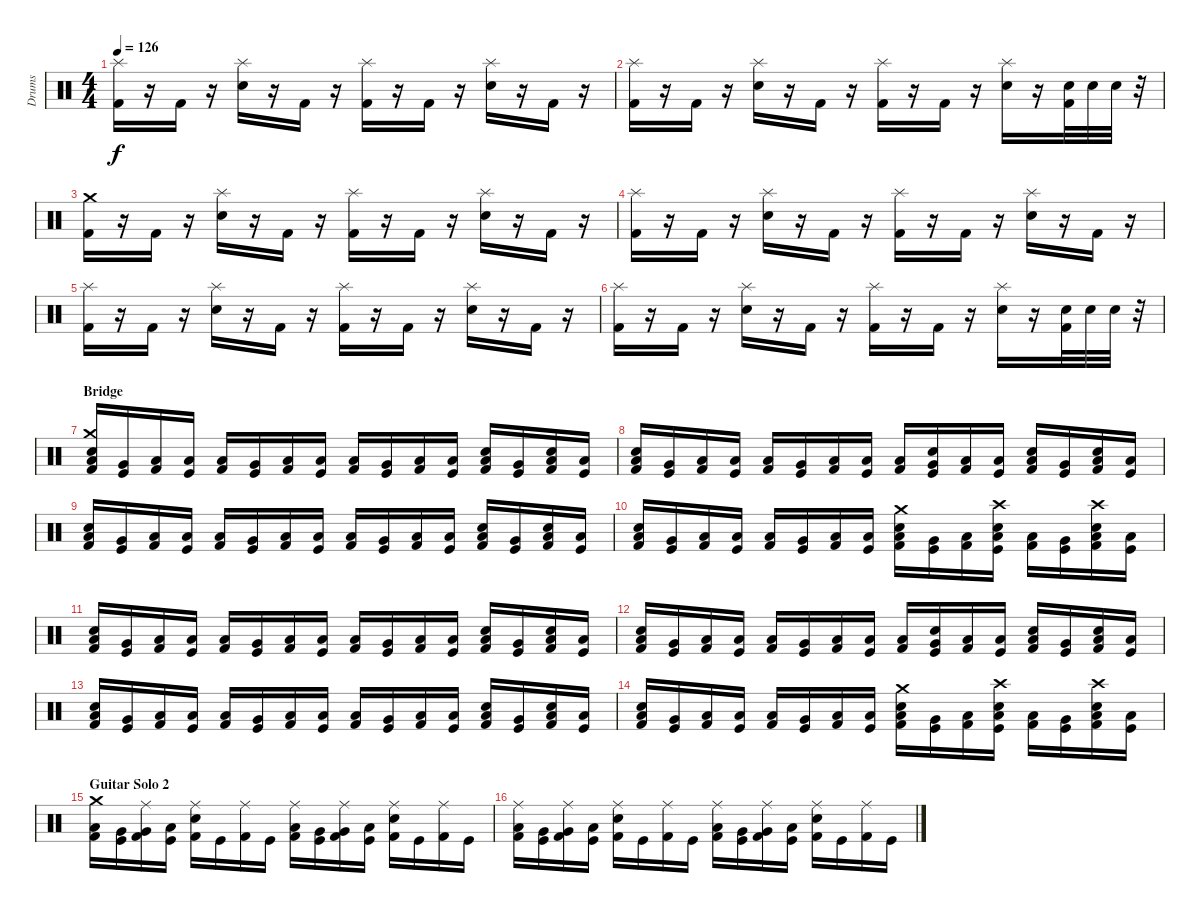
\track ("Drums" "Drums") {instrument percussion}
\staff {score}
\articulation defaults
\ts (4 4)
\tempo 126
\clef neutral
\ks c
("Splash (hit)" "Kick (hit) 2").16{dy f} r.16 "Kick (hit) 2".16 r.16 ("Splash (hit)" "Snare (hit) 2").16 r.16 "Kick (hit) 2".16 r.16 ("Splash (hit)" "Kick (hit) 2").16 r.16 "Kick (hit) 2".16 r.16 ("Splash (hit)" "Snare (hit) 2").16 r.16 "Kick (hit) 2".16 r.16 |
("Splash (hit)" "Kick (hit) 2").16 r.16 "Kick (hit) 2".16 r.16 ("Splash (hit)" "Snare (hit) 2").16 r.16 "Kick (hit) 2".16 r.16 ("Splash (hit)" "Kick (hit) 2").16 r.16 "Kick (hit) 2".16 r.16 ("Splash (hit)" "Snare (hit) 2").16 r.16 ("Snare (hit) 2" "Kick (hit) 2").32 "Snare (hit) 2".32 "Snare (hit) 2".32 r.32 |
("Crash medium (hit)" "Kick (hit) 2").16 r.16 "Kick (hit) 2".16 r.16 ("Splash (hit)" "Snare (hit) 2").16 r.16 "Kick (hit) 2".16 r.16 ("Splash (hit)" "Kick (hit) 2").16 r.16 "Kick (hit) 2".16 r.16 ("Splash (hit)" "Snare (hit) 2").16 r.16 "Kick (hit) 2".16 r.16 |
("Splash (hit)" "Kick (hit) 2").16 r.16 "Kick (hit) 2".16 r.16 ("Splash (hit)" "Snare (hit) 2").16 r.16 "Kick (hit) 2".16 r.16 ("Splash (hit)" "Kick (hit) 2").16 r.16 "Kick (hit) 2".16 r.16 ("Splash (hit)" "Snare (hit) 2").16 r.16 "Kick (hit) 2".16 r.16 |
("Splash (hit)" "Kick (hit) 2").16 r.16 "Kick (hit) 2".16 r.16 ("Splash (hit)" "Snare (hit) 2").16 r.16 "Kick (hit) 2".16 r.16 ("Splash (hit)" "Kick (hit) 2").16 r.16 "Kick (hit) 2".16 r.16 ("Splash (hit)" "Snare (hit) 2").16 r.16 "Kick (hit) 2".16 r.16 |
("Splash (hit)" "Kick (hit) 2").16 r.16 "Kick (hit) 2".16 r.16 ("Splash (hit)" "Snare (hit) 2").16 r.16 "Kick (hit) 2".16 r.16 ("Splash (hit)" "Kick (hit) 2").16 r.16 "Kick (hit) 2".16 r.16 ("Splash (hit)" "Snare (hit) 2").16 r.16 ("Snare (hit) 2" "Kick (hit) 2").32 "Snare (hit) 2".32 "Snare (hit) 2".32 r.32 |
\section ("" "Bridge")
("Crash medium (hit)" "Low Tom (hit)" "Snare (hit) 2" "Kick (hit) 2").16 ("Very Low Tom (hit)" "Kick (hit)").16 ("Low Floor Tom (hit)" "Kick (hit) 2").16 ("Low Floor Tom (hit)" "Kick (hit)").16 ("Low Tom (hit)" "Kick (hit) 2").16 ("Very Low Tom (hit)" "Kick (hit)").16 ("Low Floor Tom (hit)" "Kick (hit) 2").16 ("Low Floor Tom (hit)" "Kick (hit)").16 ("Low Tom (hit)" "Kick (hit) 2").16 ("Very Low Tom (hit)" "Kick (hit)").16 ("Low Floor Tom (hit)" "Kick (hit) 2").16 ("Low Floor Tom (hit)" "Kick (hit)").16 ("Low Tom (hit)" "Snare (hit) 2" "Kick (hit) 2").16 ("Very Low Tom (hit)" "Kick (hit)").16 ("Low Floor Tom (hit)" "Snare (hit) 2" "Kick (hit) 2").16 ("Low Floor Tom (hit)" "Kick (hit)").16 |
("Low Tom (hit)" "Snare (hit) 2" "Kick (hit) 2").16 ("Very Low Tom (hit)" "Kick (hit)").16 ("Low Floor Tom (hit)" "Kick (hit) 2").16 ("Low Floor Tom (hit)" "Kick (hit)").16 ("Low Tom (hit)" "Kick (hit) 2").16 ("Very Low Tom (hit)" "Kick (hit)").16 ("Low Floor Tom (hit)" "Kick (hit) 2").16 ("Low Floor Tom (hit)" "Kick (hit)").16 ("Low Tom (hit)" "Kick (hit) 2").16 ("Very Low Tom (hit)" "Snare (hit) 2" "Kick (hit)").16 ("Low Floor Tom (hit)" "Kick (hit) 2").16 ("Low Floor Tom (hit)" "Kick (hit)").16 ("Low Tom (hit)" "Snare (hit) 2" "Kick (hit) 2").16 ("Very Low Tom (hit)" "Kick (hit)").16 ("Low Floor Tom (hit)" "Snare (hit) 2" "Kick (hit) 2").16 ("Low Floor Tom (hit)" "Kick (hit)").16 |
("Low Tom (hit)" "Snare (hit) 2" "Kick (hit) 2").16 ("Very Low Tom (hit)" "Kick (hit)").16 ("Low Floor Tom (hit)" "Kick (hit) 2").16 ("Low Floor Tom (hit)" "Kick (hit)").16 ("Low Tom (hit)" "Kick (hit) 2").16 ("Very Low Tom (hit)" "Kick (hit)").16 ("Low Floor Tom (hit)" "Kick (hit) 2").16 ("Low Floor Tom (hit)" "Kick (hit)").16 ("Low Tom (hit)" "Kick (hit) 2").16 ("Very Low Tom (hit)" "Kick (hit)").16 ("Low Floor Tom (hit)" "Kick (hit) 2").16 ("Low Floor Tom (hit)" "Kick (hit)").16 ("Low Tom (hit)" "Snare (hit) 2" "Kick (hit) 2").16 ("Very Low Tom (hit)" "Kick (hit)").16 ("Low Floor Tom (hit)" "Snare (hit) 2" "Kick (hit) 2").16 ("Low Floor Tom (hit)" "Kick (hit)").16 |
("Low Tom (hit)" "Snare (hit) 2" "Kick (hit) 2").16 ("Very Low Tom (hit)" "Kick (hit)").16 ("Low Floor Tom (hit)" "Kick (hit) 2").16 ("Low Floor Tom (hit)" "Kick (hit)").16 ("Low Tom (hit)" "Kick (hit) 2").16 ("Very Low Tom (hit)" "Kick (hit)").16 ("Low Floor Tom (hit)" "Kick (hit) 2").16 ("Low Floor Tom (hit)" "Kick (hit)").16 ("Crash medium (hit)" "Low Tom (hit)" "Snare (hit) 2" "Kick (hit) 2").16 ("Very Low Tom (hit)" "Kick (hit)").16 ("Low Floor Tom (hit)" "Kick (hit) 2").16 ("Crash high (hit)" "Low Floor Tom (hit)" "Snare (hit) 2" "Kick (hit)").16 ("Low Tom (hit)" "Kick (hit) 2").16 ("Very Low Tom (hit)" "Kick (hit)").16 ("Crash high (hit)" "Low Floor Tom (hit)" "Snare (hit) 2" "Kick (hit) 2").16 ("Low Floor Tom (hit)" "Kick (hit)").16 |
("Low Tom (hit)" "Snare (hit) 2" "Kick (hit) 2").16 ("Very Low Tom (hit)" "Kick (hit)").16 ("Low Floor Tom (hit)" "Kick (hit) 2").16 ("Low Floor Tom (hit)" "Kick (hit)").16 ("Low Tom (hit)" "Kick (hit) 2").16 ("Very Low Tom (hit)" "Kick (hit)").16 ("Low Floor Tom (hit)" "Kick (hit) 2").16 ("Low Floor Tom (hit)" "Kick (hit)").16 ("Low Tom (hit)" "Kick (hit) 2").16 ("Very Low Tom (hit)" "Kick (hit)").16 ("Low Floor Tom (hit)" "Kick (hit) 2").16 ("Low Floor Tom (hit)" "Kick (hit)").16 ("Low Tom (hit)" "Snare (hit) 2" "Kick (hit) 2").16 ("Very Low Tom (hit)" "Kick (hit)").16 ("Low Floor Tom (hit)" "Snare (hit) 2" "Kick (hit) 2").16 ("Low Floor Tom (hit)" "Kick (hit)").16 |
("Low Tom (hit)" "Snare (hit) 2" "Kick (hit) 2").16 ("Very Low Tom (hit)" "Kick (hit)").16 ("Low Floor Tom (hit)" "Kick (hit) 2").16 ("Low Floor Tom (hit)" "Kick (hit)").16 ("Low Tom (hit)" "Kick (hit) 2").16 ("Very Low Tom (hit)" "Kick (hit)").16 ("Low Floor Tom (hit)" "Kick (hit) 2").16 ("Low Floor Tom (hit)" "Kick (hit)").16 ("Low Tom (hit)" "Kick (hit) 2").16 ("Very Low Tom (hit)" "Snare (hit) 2" "Kick (hit)").16 ("Low Floor Tom (hit)" "Kick (hit) 2").16 ("Low Floor Tom (hit)" "Kick (hit)").16 ("Low Tom (hit)" "Snare (hit) 2" "Kick (hit) 2").16 ("Very Low Tom (hit)" "Kick (hit)").16 ("Low Floor Tom (hit)" "Snare (hit) 2" "Kick (hit) 2").16 ("Low Floor Tom (hit)" "Kick (hit)").16 |
("Low Tom (hit)" "Snare (hit) 2" "Kick (hit) 2").16 ("Very Low Tom (hit)" "Kick (hit)").16 ("Low Floor Tom (hit)" "Kick (hit) 2").16 ("Low Floor Tom (hit)" "Kick (hit)").16 ("Low Tom (hit)" "Kick (hit) 2").16 ("Very Low Tom (hit)" "Kick (hit)").16 ("Low Floor Tom (hit)" "Kick (hit) 2").16 ("Low Floor Tom (hit)" "Kick (hit)").16 ("Low Tom (hit)" "Kick (hit) 2").16 ("Very Low Tom (hit)" "Kick (hit)").16 ("Low Floor Tom (hit)" "Kick (hit) 2").16 ("Low Floor Tom (hit)" "Kick (hit)").16 ("Low Tom (hit)" "Snare (hit) 2" "Kick (hit) 2").16 ("Very Low Tom (hit)" "Kick (hit)").16 ("Low Floor Tom (hit)" "Snare (hit) 2" "Kick (hit) 2").16 ("Low Floor Tom (hit)" "Kick (hit)").16 |
("Low Tom (hit)" "Snare (hit) 2" "Kick (hit) 2").16 ("Very Low Tom (hit)" "Kick (hit)").16 ("Low Floor Tom (hit)" "Kick (hit) 2").16 ("Low Floor Tom (hit)" "Kick (hit)").16 ("Low Tom (hit)" "Kick (hit) 2").16 ("Very Low Tom (hit)" "Kick (hit)").16 ("Low Floor Tom (hit)" "Kick (hit) 2").16 ("Low Floor Tom (hit)" "Kick (hit)").16 ("Crash medium (hit)" "Low Tom (hit)" "Snare (hit) 2" "Kick (hit) 2").16 ("Very Low Tom (hit)" "Kick (hit)").16 ("Low Floor Tom (hit)" "Kick (hit) 2").16 ("Crash high (hit)" "Low Floor Tom (hit)" "Snare (hit) 2" "Kick (hit)").16 ("Low Tom (hit)" "Kick (hit) 2").16 ("Very Low Tom (hit)" "Kick (hit)").16 ("Crash high (hit)" "Low Floor Tom (hit)" "Snare (hit) 2" "Kick (hit) 2").16 ("Low Floor Tom (hit)" "Kick (hit)").16 |
\section ("" "Guitar Solo 2")
("Crash medium (hit)" "Low Tom (hit)" "Kick (hit) 2").16 ("Very Low Tom (hit)" "Kick (hit)").16 ("Ride (middle)" "Very Low Tom (hit)" "Kick (hit) 2").16 ("Low Floor Tom (hit)" "Kick (hit)").16 ("Ride (middle)" "Snare (hit) 2" "Kick (hit) 2").16 "Kick (hit)".16 ("Ride (middle)" "Kick (hit) 2").16 "Kick (hit)".16 ("Ride (middle)" "Low Tom (hit)" "Kick (hit) 2").16 ("Very Low Tom (hit)" "Kick (hit)").16 ("Ride (middle)" "Very Low Tom (hit)" "Kick (hit) 2").16 ("Low Floor Tom (hit)" "Kick (hit)").16 ("Ride (middle)" "Snare (hit) 2" "Kick (hit) 2").16 "Kick (hit)".16 ("Ride (middle)" "Kick (hit) 2").16 "Kick (hit)".16 |
("Ride (middle)" "Low Tom (hit)" "Kick (hit) 2").16 ("Very Low Tom (hit)" "Kick (hit)").16 ("Ride (middle)" "Very Low Tom (hit)" "Kick (hit) 2").16 ("Low Floor Tom (hit)" "Kick (hit)").16 ("Ride (middle)" "Snare (hit) 2" "Kick (hit) 2").16 "Kick (hit)".16 ("Ride (middle)" "Kick (hit) 2").16 "Kick (hit)".16 ("Ride (middle)" "Low Tom (hit)" "Kick (hit) 2").16 ("Very Low Tom (hit)" "Kick (hit)").16 ("Ride (middle)" "Very Low Tom (hit)" "Kick (hit) 2").16 ("Low Floor Tom (hit)" "Kick (hit)").16 ("Ride (middle)" "Snare (hit) 2" "Kick (hit) 2").16 "Kick (hit)".16 ("Ride (middle)" "Kick (hit) 2").16 "Kick (hit)".16
